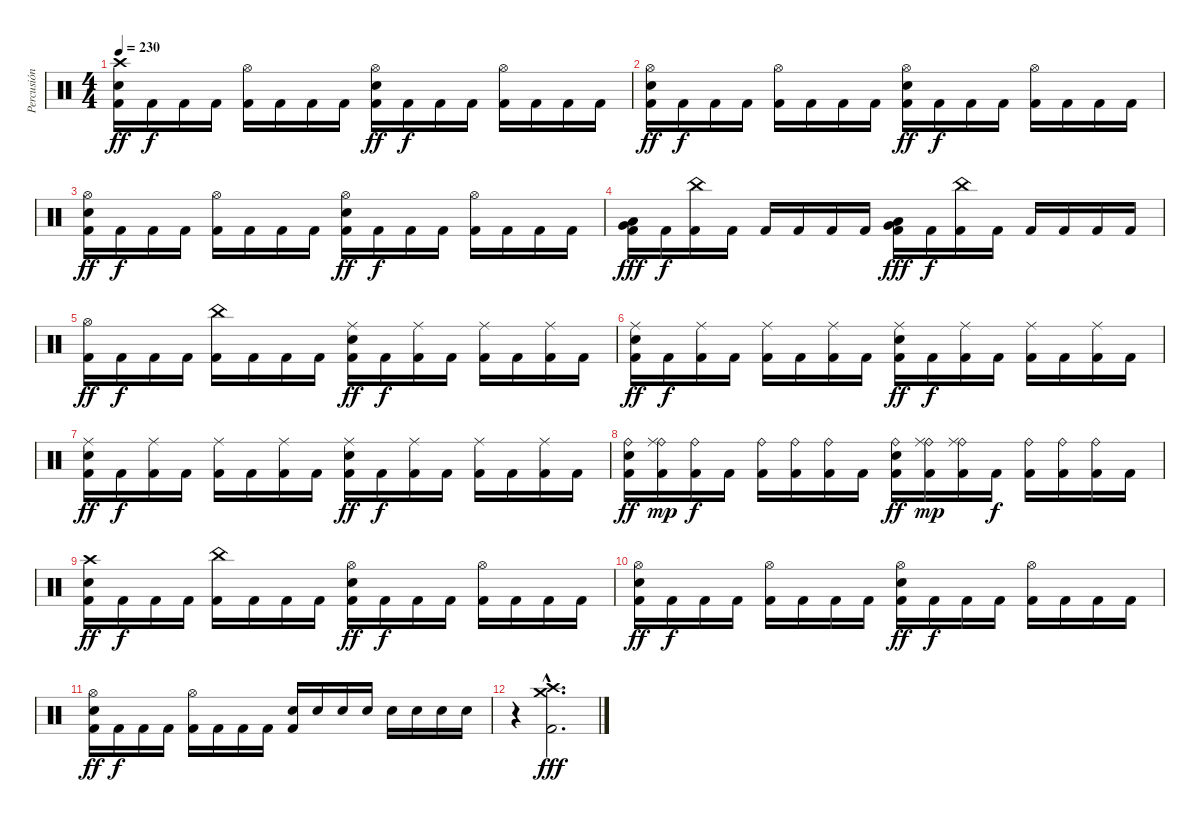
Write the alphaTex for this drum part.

\track ("Percusión" "Percusión") {instrument percussion}
\staff {score}
\articulation defaults
\ts (4 4)
\tempo 230
\clef neutral
\ks c
("Crash high (hit)" "Kick (hit) 2" "Snare (hit) 2").16{dy ff} "Kick (hit) 2".16{dy f} "Kick (hit) 2".16 "Kick (hit) 2".16 ("Hi-Hat (open)" "Kick (hit) 2").16 "Kick (hit) 2".16 "Kick (hit) 2".16 "Kick (hit) 2".16 ("Hi-Hat (open)" "Kick (hit) 2" "Snare (hit) 2").16{dy ff} "Kick (hit) 2".16{dy f} "Kick (hit) 2".16 "Kick (hit) 2".16 ("Hi-Hat (open)" "Kick (hit) 2").16 "Kick (hit) 2".16 "Kick (hit) 2".16 "Kick (hit) 2".16 |
("Hi-Hat (open)" "Kick (hit) 2" "Snare (hit) 2").16{dy ff} "Kick (hit) 2".16{dy f} "Kick (hit) 2".16 "Kick (hit) 2".16 ("Hi-Hat (open)" "Kick (hit) 2").16 "Kick (hit) 2".16 "Kick (hit) 2".16 "Kick (hit) 2".16 ("Hi-Hat (open)" "Kick (hit) 2" "Snare (hit) 2").16{dy ff} "Kick (hit) 2".16{dy f} "Kick (hit) 2".16 "Kick (hit) 2".16 ("Hi-Hat (open)" "Kick (hit) 2").16 "Kick (hit) 2".16 "Kick (hit) 2".16 "Kick (hit) 2".16 |
("Hi-Hat (open)" "Kick (hit) 2" "Snare (hit) 2").16{dy ff} "Kick (hit) 2".16{dy f} "Kick (hit) 2".16 "Kick (hit) 2".16 ("Hi-Hat (open)" "Kick (hit) 2").16 "Kick (hit) 2".16 "Kick (hit) 2".16 "Kick (hit) 2".16 ("Hi-Hat (open)" "Kick (hit) 2" "Snare (hit) 2").16{dy ff} "Kick (hit) 2".16{dy f} "Kick (hit) 2".16 "Kick (hit) 2".16 ("Hi-Hat (open)" "Kick (hit) 2").16 "Kick (hit) 2".16 "Kick (hit) 2".16 "Kick (hit) 2".16 |
("Kick (hit) 2" "Very Low Tom (hit)" "Low Floor Tom (hit)").16{dy fff} "Kick (hit) 2".16{dy f} ("China (hit)" "Kick (hit) 2").16 "Kick (hit) 2".16 "Kick (hit) 2".16 "Kick (hit) 2".16 "Kick (hit) 2".16 "Kick (hit) 2".16 ("Kick (hit) 2" "Very Low Tom (hit)" "Low Floor Tom (hit)").16{dy fff} "Kick (hit) 2".16{dy f} ("China (hit)" "Kick (hit) 2").16 "Kick (hit) 2".16 "Kick (hit) 2".16 "Kick (hit) 2".16 "Kick (hit) 2".16 "Kick (hit) 2".16 |
("Hi-Hat (open)" "Kick (hit) 2").16{dy ff} "Kick (hit) 2".16{dy f} "Kick (hit) 2".16 "Kick (hit) 2".16 ("China (hit)" "Kick (hit) 2").16 "Kick (hit) 2".16 "Kick (hit) 2".16 "Kick (hit) 2".16 ("Ride (middle)" "Kick (hit) 2" "Snare (hit) 2").16{dy ff} "Kick (hit) 2".16{dy f} ("Ride (middle)" "Kick (hit) 2").16 "Kick (hit) 2".16 ("Ride (middle)" "Kick (hit) 2").16 "Kick (hit) 2".16 ("Ride (middle)" "Kick (hit) 2").16 "Kick (hit) 2".16 |
("Ride (middle)" "Kick (hit) 2" "Snare (hit) 2").16{dy ff} "Kick (hit) 2".16{dy f} ("Ride (middle)" "Kick (hit) 2").16 "Kick (hit) 2".16 ("Ride (middle)" "Kick (hit) 2").16 "Kick (hit) 2".16 ("Ride (middle)" "Kick (hit) 2").16 "Kick (hit) 2".16 ("Ride (middle)" "Kick (hit) 2" "Snare (hit) 2").16{dy ff} "Kick (hit) 2".16{dy f} ("Ride (middle)" "Kick (hit) 2").16 "Kick (hit) 2".16 ("Ride (middle)" "Kick (hit) 2").16 "Kick (hit) 2".16 ("Ride (middle)" "Kick (hit) 2").16 "Kick (hit) 2".16 |
("Ride (middle)" "Kick (hit) 2" "Snare (hit) 2").16{dy ff} "Kick (hit) 2".16{dy f} ("Ride (middle)" "Kick (hit) 2").16 "Kick (hit) 2".16 ("Ride (middle)" "Kick (hit) 2").16 "Kick (hit) 2".16 ("Ride (middle)" "Kick (hit) 2").16 "Kick (hit) 2".16 ("Ride (middle)" "Kick (hit) 2" "Snare (hit) 2").16{dy ff} "Kick (hit) 2".16{dy f} ("Ride (middle)" "Kick (hit) 2").16 "Kick (hit) 2".16 ("Ride (middle)" "Kick (hit) 2").16 "Kick (hit) 2".16 ("Ride (middle)" "Kick (hit) 2").16 "Kick (hit) 2".16 |
("Ride (bell)" "Kick (hit) 2" "Snare (hit) 2").16{dy ff} ("Ride (bell)" "Ride (middle)" "Kick (hit) 2").16{dy mp} ("Ride (bell)" "Kick (hit) 2").16{dy f} "Kick (hit) 2".16 ("Ride (bell)" "Kick (hit) 2").16 ("Ride (bell)" "Kick (hit) 2").16 ("Ride (bell)" "Kick (hit) 2").16 "Kick (hit) 2".16 ("Ride (bell)" "Kick (hit) 2" "Snare (hit) 2").16{dy ff} ("Ride (bell)" "Ride (middle)" "Kick (hit) 2").16{dy mp} ("Ride (bell)" "Ride (middle)" "Kick (hit) 2").16 "Kick (hit) 2".16{dy f} ("Ride (bell)" "Kick (hit) 2").16 ("Ride (bell)" "Kick (hit) 2").16 ("Ride (bell)" "Kick (hit) 2").16 "Kick (hit) 2".16 |
("Crash high (hit)" "Kick (hit) 2" "Snare (hit) 2").16{dy ff} "Kick (hit) 2".16{dy f} "Kick (hit) 2".16 "Kick (hit) 2".16 ("China (hit)" "Kick (hit) 2").16 "Kick (hit) 2".16 "Kick (hit) 2".16 "Kick (hit) 2".16 ("Hi-Hat (open)" "Kick (hit) 2" "Snare (hit) 2").16{dy ff} "Kick (hit) 2".16{dy f} "Kick (hit) 2".16 "Kick (hit) 2".16 ("Hi-Hat (open)" "Kick (hit) 2").16 "Kick (hit) 2".16 "Kick (hit) 2".16 "Kick (hit) 2".16 |
("Hi-Hat (open)" "Kick (hit) 2" "Snare (hit) 2").16{dy ff} "Kick (hit) 2".16{dy f} "Kick (hit) 2".16 "Kick (hit) 2".16 ("Hi-Hat (open)" "Kick (hit) 2").16 "Kick (hit) 2".16 "Kick (hit) 2".16 "Kick (hit) 2".16 ("Hi-Hat (open)" "Kick (hit) 2" "Snare (hit) 2").16{dy ff} "Kick (hit) 2".16{dy f} "Kick (hit) 2".16 "Kick (hit) 2".16 ("Hi-Hat (open)" "Kick (hit) 2").16 "Kick (hit) 2".16 "Kick (hit) 2".16 "Kick (hit) 2".16 |
("Hi-Hat (open)" "Kick (hit) 2" "Snare (hit) 2").16{dy ff} "Kick (hit) 2".16{dy f} "Kick (hit) 2".16 "Kick (hit) 2".16 ("Hi-Hat (open)" "Kick (hit) 2").16 "Kick (hit) 2".16 "Kick (hit) 2".16 "Kick (hit) 2".16 ("Kick (hit) 2" "Snare (hit) 2").16 "Snare (hit) 2".16 "Snare (hit) 2".16 "Snare (hit) 2".16 "Snare (hit) 2".16 "Snare (hit) 2".16 "Snare (hit) 2".16 "Snare (hit) 2".16 |
r.4 ("Crash medium (hit)"{hac} "Crash high (hit)"{hac} "Kick (hit) 2"{hac}).2{d dy fff}
